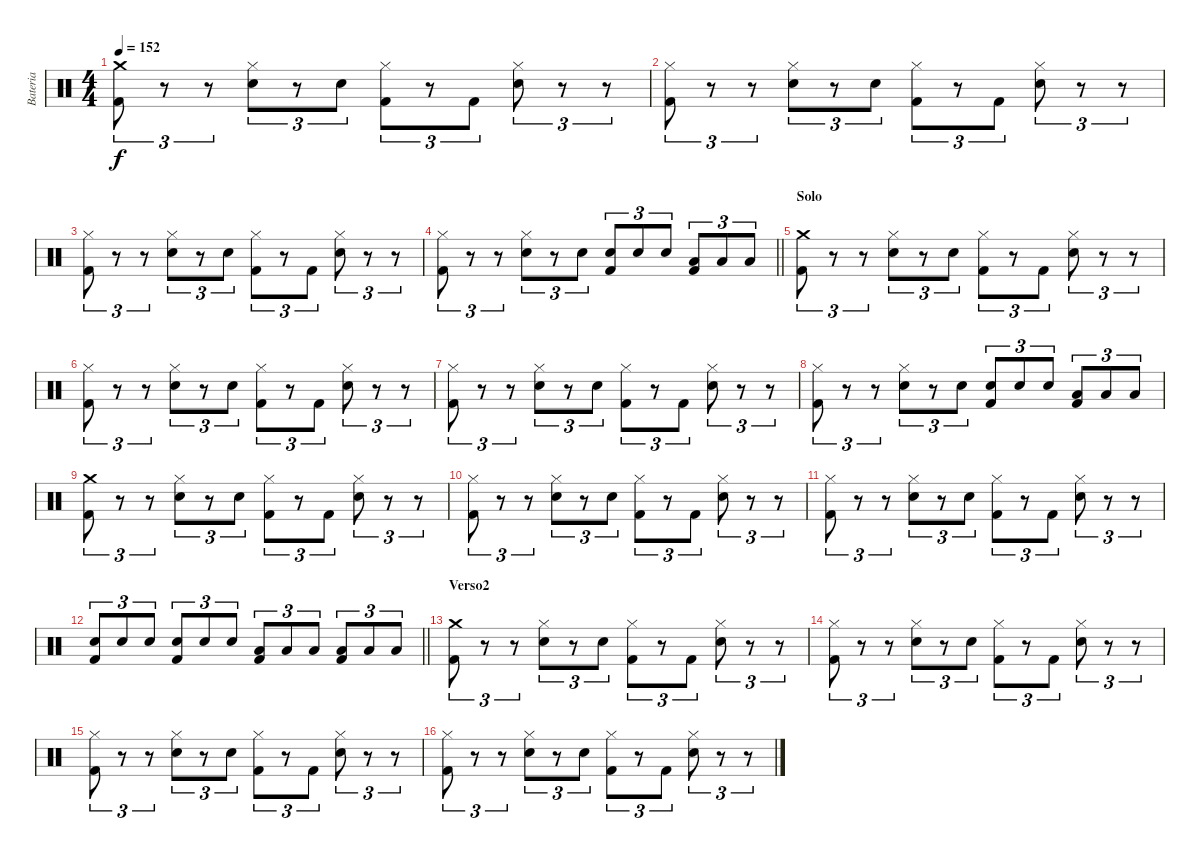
\track ("Bateria" "Bateria") {instrument percussion}
\staff {score}
\articulation defaults
\ts (4 4)
\tempo 152
\clef neutral
\ks c
("Crash medium (hit)" "Kick (hit) 2").8{tu (3 2) dy f} r.8{tu (3 2)} r.8{tu (3 2)} ("Hi-Hat (closed)" "Snare (hit) 2").8{tu (3 2)} r.8{tu (3 2)} "Snare (hit) 2".8{tu (3 2)} ("Hi-Hat (closed)" "Kick (hit) 2").8{tu (3 2)} r.8{tu (3 2)} "Kick (hit) 2".8{tu (3 2)} ("Hi-Hat (closed)" "Snare (hit) 2").8{tu (3 2)} r.8{tu (3 2)} r.8{tu (3 2)} |
("Hi-Hat (closed)" "Kick (hit) 2").8{tu (3 2)} r.8{tu (3 2)} r.8{tu (3 2)} ("Hi-Hat (closed)" "Snare (hit) 2").8{tu (3 2)} r.8{tu (3 2)} "Snare (hit) 2".8{tu (3 2)} ("Hi-Hat (closed)" "Kick (hit) 2").8{tu (3 2)} r.8{tu (3 2)} "Kick (hit) 2".8{tu (3 2)} ("Hi-Hat (closed)" "Snare (hit) 2").8{tu (3 2)} r.8{tu (3 2)} r.8{tu (3 2)} |
("Hi-Hat (closed)" "Kick (hit) 2").8{tu (3 2)} r.8{tu (3 2)} r.8{tu (3 2)} ("Hi-Hat (closed)" "Snare (hit) 2").8{tu (3 2)} r.8{tu (3 2)} "Snare (hit) 2".8{tu (3 2)} ("Hi-Hat (closed)" "Kick (hit) 2").8{tu (3 2)} r.8{tu (3 2)} "Kick (hit) 2".8{tu (3 2)} ("Hi-Hat (closed)" "Snare (hit) 2").8{tu (3 2)} r.8{tu (3 2)} r.8{tu (3 2)} |
\barLineRight lightlight
("Hi-Hat (closed)" "Kick (hit) 2").8{tu (3 2)} r.8{tu (3 2)} r.8{tu (3 2)} ("Hi-Hat (closed)" "Snare (hit) 2").8{tu (3 2)} r.8{tu (3 2)} "Snare (hit) 2".8{tu (3 2)} ("Snare (hit) 2" "Kick (hit) 2").8{tu (3 2)} "Snare (hit) 2".8{tu (3 2)} "Snare (hit) 2".8{tu (3 2)} ("Low Floor Tom (hit)" "Kick (hit) 2").8{tu (3 2)} "Low Floor Tom (hit)".8{tu (3 2)} "Low Floor Tom (hit)".8{tu (3 2)} |
\section ("" "Solo")
("Crash medium (hit)" "Kick (hit) 2").8{tu (3 2)} r.8{tu (3 2)} r.8{tu (3 2)} ("Hi-Hat (closed)" "Snare (hit) 2").8{tu (3 2)} r.8{tu (3 2)} "Snare (hit) 2".8{tu (3 2)} ("Hi-Hat (closed)" "Kick (hit) 2").8{tu (3 2)} r.8{tu (3 2)} "Kick (hit) 2".8{tu (3 2)} ("Hi-Hat (closed)" "Snare (hit) 2").8{tu (3 2)} r.8{tu (3 2)} r.8{tu (3 2)} |
("Hi-Hat (closed)" "Kick (hit) 2").8{tu (3 2)} r.8{tu (3 2)} r.8{tu (3 2)} ("Hi-Hat (closed)" "Snare (hit) 2").8{tu (3 2)} r.8{tu (3 2)} "Snare (hit) 2".8{tu (3 2)} ("Hi-Hat (closed)" "Kick (hit) 2").8{tu (3 2)} r.8{tu (3 2)} "Kick (hit) 2".8{tu (3 2)} ("Hi-Hat (closed)" "Snare (hit) 2").8{tu (3 2)} r.8{tu (3 2)} r.8{tu (3 2)} |
("Hi-Hat (closed)" "Kick (hit) 2").8{tu (3 2)} r.8{tu (3 2)} r.8{tu (3 2)} ("Hi-Hat (closed)" "Snare (hit) 2").8{tu (3 2)} r.8{tu (3 2)} "Snare (hit) 2".8{tu (3 2)} ("Hi-Hat (closed)" "Kick (hit) 2").8{tu (3 2)} r.8{tu (3 2)} "Kick (hit) 2".8{tu (3 2)} ("Hi-Hat (closed)" "Snare (hit) 2").8{tu (3 2)} r.8{tu (3 2)} r.8{tu (3 2)} |
("Hi-Hat (closed)" "Kick (hit) 2").8{tu (3 2)} r.8{tu (3 2)} r.8{tu (3 2)} ("Hi-Hat (closed)" "Snare (hit) 2").8{tu (3 2)} r.8{tu (3 2)} "Snare (hit) 2".8{tu (3 2)} ("Snare (hit) 2" "Kick (hit) 2").8{tu (3 2)} "Snare (hit) 2".8{tu (3 2)} "Snare (hit) 2".8{tu (3 2)} ("Low Floor Tom (hit)" "Kick (hit) 2").8{tu (3 2)} "Low Floor Tom (hit)".8{tu (3 2)} "Low Floor Tom (hit)".8{tu (3 2)} |
("Crash medium (hit)" "Kick (hit) 2").8{tu (3 2)} r.8{tu (3 2)} r.8{tu (3 2)} ("Hi-Hat (closed)" "Snare (hit) 2").8{tu (3 2)} r.8{tu (3 2)} "Snare (hit) 2".8{tu (3 2)} ("Hi-Hat (closed)" "Kick (hit) 2").8{tu (3 2)} r.8{tu (3 2)} "Kick (hit) 2".8{tu (3 2)} ("Hi-Hat (closed)" "Snare (hit) 2").8{tu (3 2)} r.8{tu (3 2)} r.8{tu (3 2)} |
("Hi-Hat (closed)" "Kick (hit) 2").8{tu (3 2)} r.8{tu (3 2)} r.8{tu (3 2)} ("Hi-Hat (closed)" "Snare (hit) 2").8{tu (3 2)} r.8{tu (3 2)} "Snare (hit) 2".8{tu (3 2)} ("Hi-Hat (closed)" "Kick (hit) 2").8{tu (3 2)} r.8{tu (3 2)} "Kick (hit) 2".8{tu (3 2)} ("Hi-Hat (closed)" "Snare (hit) 2").8{tu (3 2)} r.8{tu (3 2)} r.8{tu (3 2)} |
("Hi-Hat (closed)" "Kick (hit) 2").8{tu (3 2)} r.8{tu (3 2)} r.8{tu (3 2)} ("Hi-Hat (closed)" "Snare (hit) 2").8{tu (3 2)} r.8{tu (3 2)} "Snare (hit) 2".8{tu (3 2)} ("Hi-Hat (closed)" "Kick (hit) 2").8{tu (3 2)} r.8{tu (3 2)} "Kick (hit) 2".8{tu (3 2)} ("Hi-Hat (closed)" "Snare (hit) 2").8{tu (3 2)} r.8{tu (3 2)} r.8{tu (3 2)} |
\barLineRight lightlight
("Snare (hit) 2" "Kick (hit) 2").8{tu (3 2)} "Snare (hit) 2".8{tu (3 2)} "Snare (hit) 2".8{tu (3 2)} ("Snare (hit) 2" "Kick (hit) 2").8{tu (3 2)} "Snare (hit) 2".8{tu (3 2)} "Snare (hit) 2".8{tu (3 2)} ("Low Floor Tom (hit)" "Kick (hit) 2").8{tu (3 2)} "Low Tom (hit)".8{tu (3 2)} "Low Tom (hit)".8{tu (3 2)} ("Low Floor Tom (hit)" "Kick (hit) 2").8{tu (3 2)} "Low Floor Tom (hit)".8{tu (3 2)} "Low Floor Tom (hit)".8{tu (3 2)} |
\section ("" "Verso2")
("Crash medium (hit)" "Kick (hit) 2").8{tu (3 2)} r.8{tu (3 2)} r.8{tu (3 2)} ("Hi-Hat (closed)" "Snare (hit) 2").8{tu (3 2)} r.8{tu (3 2)} "Snare (hit) 2".8{tu (3 2)} ("Hi-Hat (closed)" "Kick (hit) 2").8{tu (3 2)} r.8{tu (3 2)} "Kick (hit) 2".8{tu (3 2)} ("Hi-Hat (closed)" "Snare (hit) 2").8{tu (3 2)} r.8{tu (3 2)} r.8{tu (3 2)} |
("Hi-Hat (closed)" "Kick (hit) 2").8{tu (3 2)} r.8{tu (3 2)} r.8{tu (3 2)} ("Hi-Hat (closed)" "Snare (hit) 2").8{tu (3 2)} r.8{tu (3 2)} "Snare (hit) 2".8{tu (3 2)} ("Hi-Hat (closed)" "Kick (hit) 2").8{tu (3 2)} r.8{tu (3 2)} "Kick (hit) 2".8{tu (3 2)} ("Hi-Hat (closed)" "Snare (hit) 2").8{tu (3 2)} r.8{tu (3 2)} r.8{tu (3 2)} |
("Hi-Hat (closed)" "Kick (hit) 2").8{tu (3 2)} r.8{tu (3 2)} r.8{tu (3 2)} ("Hi-Hat (closed)" "Snare (hit) 2").8{tu (3 2)} r.8{tu (3 2)} "Snare (hit) 2".8{tu (3 2)} ("Hi-Hat (closed)" "Kick (hit) 2").8{tu (3 2)} r.8{tu (3 2)} "Kick (hit) 2".8{tu (3 2)} ("Hi-Hat (closed)" "Snare (hit) 2").8{tu (3 2)} r.8{tu (3 2)} r.8{tu (3 2)} |
("Hi-Hat (closed)" "Kick (hit) 2").8{tu (3 2)} r.8{tu (3 2)} r.8{tu (3 2)} ("Hi-Hat (closed)" "Snare (hit) 2").8{tu (3 2)} r.8{tu (3 2)} "Snare (hit) 2".8{tu (3 2)} ("Hi-Hat (closed)" "Kick (hit) 2").8{tu (3 2)} r.8{tu (3 2)} "Kick (hit) 2".8{tu (3 2)} ("Hi-Hat (closed)" "Snare (hit) 2").8{tu (3 2)} r.8{tu (3 2)} r.8{tu (3 2)}
